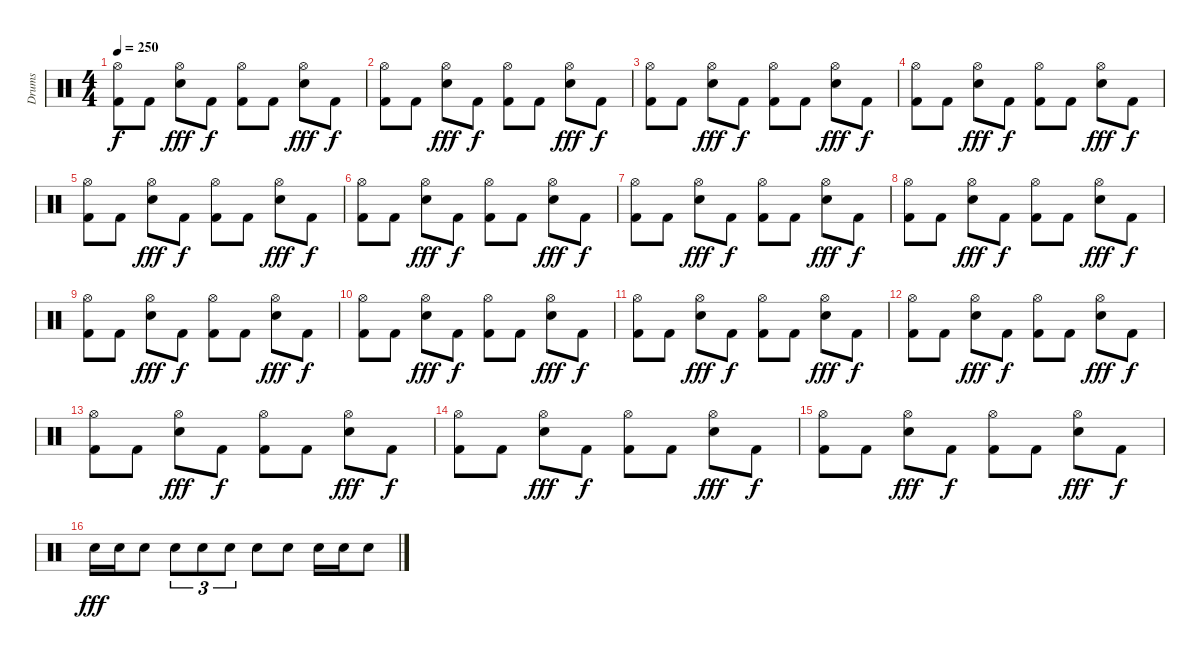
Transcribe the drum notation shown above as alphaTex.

\track ("Drums" "Drums") {instrument percussion}
\staff {score}
\articulation defaults
\ts (4 4)
\tempo 250
\clef neutral
\ks c
("Kick (hit) 2" "Hi-Hat (open)").8{dy f} "Kick (hit) 2".8 ("Hi-Hat (open)" "Snare (hit) 2").8{dy fff} "Kick (hit) 2".8{dy f} ("Hi-Hat (open)" "Kick (hit) 2").8 "Kick (hit) 2".8 ("Hi-Hat (open)" "Snare (hit) 2").8{dy fff} "Kick (hit) 2".8{dy f} |
("Kick (hit) 2" "Hi-Hat (open)").8 "Kick (hit) 2".8 ("Hi-Hat (open)" "Snare (hit) 2").8{dy fff} "Kick (hit) 2".8{dy f} ("Hi-Hat (open)" "Kick (hit) 2").8 "Kick (hit) 2".8 ("Hi-Hat (open)" "Snare (hit) 2").8{dy fff} "Kick (hit) 2".8{dy f} |
("Kick (hit) 2" "Hi-Hat (open)").8 "Kick (hit) 2".8 ("Hi-Hat (open)" "Snare (hit) 2").8{dy fff} "Kick (hit) 2".8{dy f} ("Hi-Hat (open)" "Kick (hit) 2").8 "Kick (hit) 2".8 ("Hi-Hat (open)" "Snare (hit) 2").8{dy fff} "Kick (hit) 2".8{dy f} |
("Kick (hit) 2" "Hi-Hat (open)").8 "Kick (hit) 2".8 ("Hi-Hat (open)" "Snare (hit) 2").8{dy fff} "Kick (hit) 2".8{dy f} ("Hi-Hat (open)" "Kick (hit) 2").8 "Kick (hit) 2".8 ("Hi-Hat (open)" "Snare (hit) 2").8{dy fff} "Kick (hit) 2".8{dy f} |
("Kick (hit) 2" "Hi-Hat (open)").8 "Kick (hit) 2".8 ("Hi-Hat (open)" "Snare (hit) 2").8{dy fff} "Kick (hit) 2".8{dy f} ("Hi-Hat (open)" "Kick (hit) 2").8 "Kick (hit) 2".8 ("Hi-Hat (open)" "Snare (hit) 2").8{dy fff} "Kick (hit) 2".8{dy f} |
("Kick (hit) 2" "Hi-Hat (open)").8 "Kick (hit) 2".8 ("Hi-Hat (open)" "Snare (hit) 2").8{dy fff} "Kick (hit) 2".8{dy f} ("Hi-Hat (open)" "Kick (hit) 2").8 "Kick (hit) 2".8 ("Hi-Hat (open)" "Snare (hit) 2").8{dy fff} "Kick (hit) 2".8{dy f} |
("Kick (hit) 2" "Hi-Hat (open)").8 "Kick (hit) 2".8 ("Hi-Hat (open)" "Snare (hit) 2").8{dy fff} "Kick (hit) 2".8{dy f} ("Hi-Hat (open)" "Kick (hit) 2").8 "Kick (hit) 2".8 ("Hi-Hat (open)" "Snare (hit) 2").8{dy fff} "Kick (hit) 2".8{dy f} |
("Kick (hit) 2" "Hi-Hat (open)").8 "Kick (hit) 2".8 ("Hi-Hat (open)" "Snare (hit) 2").8{dy fff} "Kick (hit) 2".8{dy f} ("Hi-Hat (open)" "Kick (hit) 2").8 "Kick (hit) 2".8 ("Hi-Hat (open)" "Snare (hit) 2").8{dy fff} "Kick (hit) 2".8{dy f} |
("Kick (hit) 2" "Hi-Hat (open)").8 "Kick (hit) 2".8 ("Hi-Hat (open)" "Snare (hit) 2").8{dy fff} "Kick (hit) 2".8{dy f} ("Hi-Hat (open)" "Kick (hit) 2").8 "Kick (hit) 2".8 ("Hi-Hat (open)" "Snare (hit) 2").8{dy fff} "Kick (hit) 2".8{dy f} |
("Kick (hit) 2" "Hi-Hat (open)").8 "Kick (hit) 2".8 ("Hi-Hat (open)" "Snare (hit) 2").8{dy fff} "Kick (hit) 2".8{dy f} ("Hi-Hat (open)" "Kick (hit) 2").8 "Kick (hit) 2".8 ("Hi-Hat (open)" "Snare (hit) 2").8{dy fff} "Kick (hit) 2".8{dy f} |
("Kick (hit) 2" "Hi-Hat (open)").8 "Kick (hit) 2".8 ("Hi-Hat (open)" "Snare (hit) 2").8{dy fff} "Kick (hit) 2".8{dy f} ("Hi-Hat (open)" "Kick (hit) 2").8 "Kick (hit) 2".8 ("Hi-Hat (open)" "Snare (hit) 2").8{dy fff} "Kick (hit) 2".8{dy f} |
("Kick (hit) 2" "Hi-Hat (open)").8 "Kick (hit) 2".8 ("Hi-Hat (open)" "Snare (hit) 2").8{dy fff} "Kick (hit) 2".8{dy f} ("Hi-Hat (open)" "Kick (hit) 2").8 "Kick (hit) 2".8 ("Hi-Hat (open)" "Snare (hit) 2").8{dy fff} "Kick (hit) 2".8{dy f} |
("Kick (hit) 2" "Hi-Hat (open)").8 "Kick (hit) 2".8 ("Hi-Hat (open)" "Snare (hit) 2").8{dy fff} "Kick (hit) 2".8{dy f} ("Hi-Hat (open)" "Kick (hit) 2").8 "Kick (hit) 2".8 ("Hi-Hat (open)" "Snare (hit) 2").8{dy fff} "Kick (hit) 2".8{dy f} |
("Kick (hit) 2" "Hi-Hat (open)").8 "Kick (hit) 2".8 ("Hi-Hat (open)" "Snare (hit) 2").8{dy fff} "Kick (hit) 2".8{dy f} ("Hi-Hat (open)" "Kick (hit) 2").8 "Kick (hit) 2".8 ("Hi-Hat (open)" "Snare (hit) 2").8{dy fff} "Kick (hit) 2".8{dy f} |
("Kick (hit) 2" "Hi-Hat (open)").8 "Kick (hit) 2".8 ("Hi-Hat (open)" "Snare (hit) 2").8{dy fff} "Kick (hit) 2".8{dy f} ("Hi-Hat (open)" "Kick (hit) 2").8 "Kick (hit) 2".8 ("Hi-Hat (open)" "Snare (hit) 2").8{dy fff} "Kick (hit) 2".8{dy f} |
"Snare (hit) 2".16{dy fff} "Snare (hit) 2".16 "Snare (hit) 2".8 "Snare (hit) 2".8{tu (3 2)} "Snare (hit) 2".8{tu (3 2)} "Snare (hit) 2".8{tu (3 2)} "Snare (hit) 2".8 "Snare (hit) 2".8 "Snare (hit) 2".16 "Snare (hit) 2".16 "Snare (hit) 2".8
